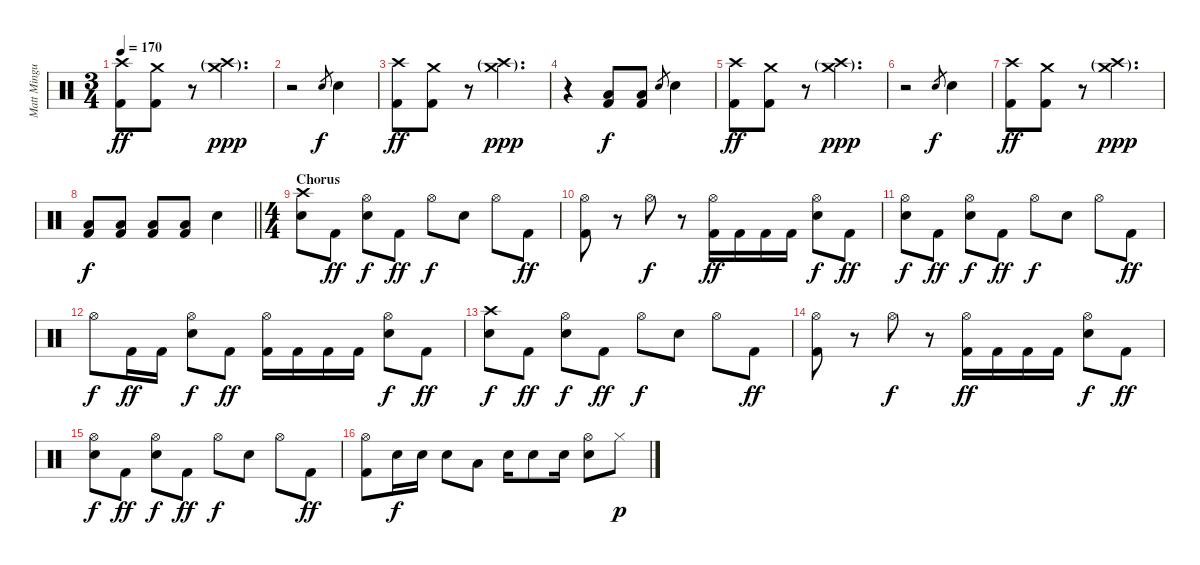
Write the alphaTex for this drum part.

\track ("Matt Mingus (Drum Kit)" "Matt Mingu") {instrument percussion}
\staff {score}
\articulation defaults
\ts (3 4)
\tempo 170
\clef neutral
\ks c
("Crash high (hit)" "Kick (hit) 2").8{dy ff} ("Crash medium (hit)" "Kick (hit) 2").8 r.8 ("Crash high (hit)"{g} "Crash medium (hit)"{g}).4{d dy ppp} |
r.2 "Electric Snare (hit)".8{gr dy f} "Electric Snare (hit)".4 |
("Crash high (hit)" "Kick (hit) 2").8{dy ff} ("Crash medium (hit)" "Kick (hit) 2").8 r.8 ("Crash high (hit)"{g} "Crash medium (hit)"{g}).4{d dy ppp} |
r.4 ("Low Tom (hit)" "Kick (hit) 2").8{dy f} ("Low Tom (hit)" "Kick (hit) 2").8 "Electric Snare (hit)".8{gr} "Electric Snare (hit)".4 |
("Crash high (hit)" "Kick (hit) 2").8{dy ff} ("Crash medium (hit)" "Kick (hit) 2").8 r.8 ("Crash high (hit)"{g} "Crash medium (hit)"{g}).4{d dy ppp} |
r.2 "Electric Snare (hit)".8{gr dy f} "Electric Snare (hit)".4 |
("Crash high (hit)" "Kick (hit) 2").8{dy ff} ("Crash medium (hit)" "Kick (hit) 2").8 r.8 ("Crash high (hit)"{g} "Crash medium (hit)"{g}).4{d dy ppp} |
\barLineRight lightlight
("Low Tom (hit)" "Kick (hit) 2").8{dy f} ("Low Tom (hit)" "Kick (hit) 2").8 ("Low Tom (hit)" "Kick (hit) 2").8 ("Low Tom (hit)" "Kick (hit) 2").8 "Electric Snare (hit)".4 |
\ts (4 4)
\section ("" "Chorus")
("Crash high (hit)" "Electric Snare (hit)").8 "Kick (hit) 2".8{dy ff} ("Hi-Hat (open)" "Electric Snare (hit)").8{dy f} "Kick (hit) 2".8{dy ff} "Hi-Hat (open)".8{dy f} "Electric Snare (hit)".8 "Hi-Hat (open)".8 "Kick (hit) 2".8{dy ff} |
("Hi-Hat (open)" "Kick (hit) 2").8 r.8 "Hi-Hat (open)".8{dy f} r.8 ("Hi-Hat (open)" "Kick (hit) 2").16{dy ff} "Kick (hit) 2".16 "Kick (hit) 2".16 "Kick (hit) 2".16 ("Hi-Hat (open)" "Electric Snare (hit)").8{dy f} "Kick (hit) 2".8{dy ff} |
("Hi-Hat (open)" "Electric Snare (hit)").8{dy f} "Kick (hit) 2".8{dy ff} ("Hi-Hat (open)" "Electric Snare (hit)").8{dy f} "Kick (hit) 2".8{dy ff} "Hi-Hat (open)".8{dy f} "Electric Snare (hit)".8 "Hi-Hat (open)".8 "Kick (hit) 2".8{dy ff} |
"Hi-Hat (open)".8{dy f} "Kick (hit) 2".16{dy ff} "Kick (hit) 2".16 ("Hi-Hat (open)" "Electric Snare (hit)").8{dy f} "Kick (hit) 2".8{dy ff} ("Hi-Hat (open)" "Kick (hit) 2").16 "Kick (hit) 2".16 "Kick (hit) 2".16 "Kick (hit) 2".16 ("Hi-Hat (open)" "Electric Snare (hit)").8{dy f} "Kick (hit) 2".8{dy ff} |
("Crash high (hit)" "Electric Snare (hit)").8{dy f} "Kick (hit) 2".8{dy ff} ("Hi-Hat (open)" "Electric Snare (hit)").8{dy f} "Kick (hit) 2".8{dy ff} "Hi-Hat (open)".8{dy f} "Electric Snare (hit)".8 "Hi-Hat (open)".8 "Kick (hit) 2".8{dy ff} |
("Hi-Hat (open)" "Kick (hit) 2").8 r.8 "Hi-Hat (open)".8{dy f} r.8 ("Hi-Hat (open)" "Kick (hit) 2").16{dy ff} "Kick (hit) 2".16 "Kick (hit) 2".16 "Kick (hit) 2".16 ("Hi-Hat (open)" "Electric Snare (hit)").8{dy f} "Kick (hit) 2".8{dy ff} |
("Hi-Hat (open)" "Electric Snare (hit)").8{dy f} "Kick (hit) 2".8{dy ff} ("Hi-Hat (open)" "Electric Snare (hit)").8{dy f} "Kick (hit) 2".8{dy ff} "Hi-Hat (open)".8{dy f} "Electric Snare (hit)".8 "Hi-Hat (open)".8 "Kick (hit) 2".8{dy ff} |
("Hi-Hat (open)" "Kick (hit) 2").8 "Electric Snare (hit)".16{dy f} "Electric Snare (hit)".16 "Electric Snare (hit)".8 "Low Tom (hit)".8 "Electric Snare (hit)".16 "Electric Snare (hit)".8 "Electric Snare (hit)".16 ("Hi-Hat (open)" "Electric Snare (hit)").8 "Hi-Hat (closed)".8{dy p}
